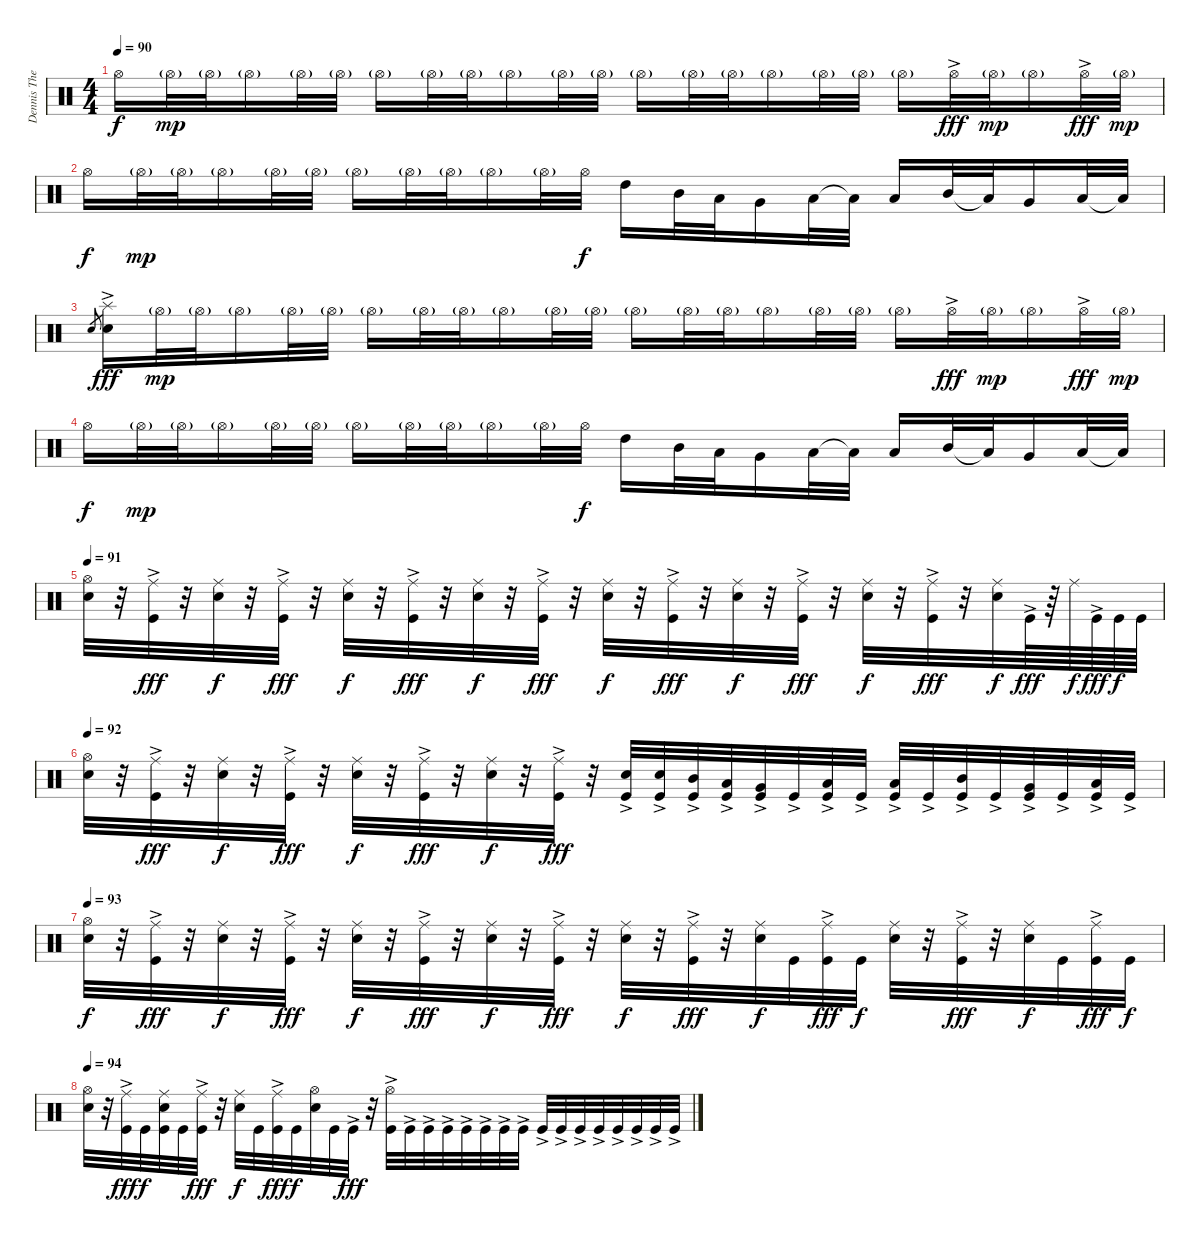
\track ("Dennis The Menace" "Dennis The") {instrument percussion}
\staff {score}
\articulation defaults
\ts (4 4)
\tempo 90
\clef neutral
\ks c "Hi-Hat (open)".16{dy f} "Hi-Hat (open)"{g}.32{dy mp} "Hi-Hat (open)"{g}.32 "Hi-Hat (open)"{g}.16 "Hi-Hat (open)"{g}.32 "Hi-Hat (open)"{g}.32 "Hi-Hat (open)"{g}.16 "Hi-Hat (open)"{g}.32 "Hi-Hat (open)"{g}.32 "Hi-Hat (open)"{g}.16 "Hi-Hat (open)"{g}.32 "Hi-Hat (open)"{g}.32 "Hi-Hat (open)"{g}.16 "Hi-Hat (open)"{g}.32 "Hi-Hat (open)"{g}.32 "Hi-Hat (open)"{g}.16 "Hi-Hat (open)"{g}.32 "Hi-Hat (open)"{g}.32 "Hi-Hat (open)"{g}.16 "Hi-Hat (open)"{ac}.32{dy fff} "Hi-Hat (open)"{g}.32{dy mp} "Hi-Hat (open)"{g}.16 "Hi-Hat (open)"{ac}.32{dy fff} "Hi-Hat (open)"{g}.32{dy mp}
|
"Hi-Hat (open)".16{dy f} "Hi-Hat (open)"{g}.32{dy mp} "Hi-Hat (open)"{g}.32 "Hi-Hat (open)"{g}.16 "Hi-Hat (open)"{g}.32 "Hi-Hat (open)"{g}.32 "Hi-Hat (open)"{g}.16 "Hi-Hat (open)"{g}.32 "Hi-Hat (open)"{g}.32 "Hi-Hat (open)"{g}.16 "Hi-Hat (open)"{g}.32 "Hi-Hat (open)".32{dy f} "High Tom (hit)".16 "Mid Tom (hit)".32 "Low Tom (hit)".32 "Very Low Tom (hit)".16 "Low Floor Tom (hit)".32 "Low Floor Tom (hit)"{t}.32 "Low Tom (hit)".16 "Mid Tom (hit)".32 "Low Tom (hit)"{t}.32 "Very Low Tom (hit)".16 "Low Floor Tom (hit)".32 "Low Floor Tom (hit)"{t}.32 |
"Electric Snare (hit)".8{gr} ("Splash (hit)"{ac} "Electric Snare (hit)").16{dy fff} "Hi-Hat (open)"{g}.32{dy mp} "Hi-Hat (open)"{g}.32 "Hi-Hat (open)"{g}.16 "Hi-Hat (open)"{g}.32 "Hi-Hat (open)"{g}.32 "Hi-Hat (open)"{g}.16 "Hi-Hat (open)"{g}.32 "Hi-Hat (open)"{g}.32 "Hi-Hat (open)"{g}.16 "Hi-Hat (open)"{g}.32 "Hi-Hat (open)"{g}.32 "Hi-Hat (open)"{g}.16 "Hi-Hat (open)"{g}.32 "Hi-Hat (open)"{g}.32 "Hi-Hat (open)"{g}.16 "Hi-Hat (open)"{g}.32 "Hi-Hat (open)"{g}.32 "Hi-Hat (open)"{g}.16 "Hi-Hat (open)"{ac}.32{dy fff} "Hi-Hat (open)"{g}.32{dy mp} "Hi-Hat (open)"{g}.16 "Hi-Hat (open)"{ac}.32{dy fff} "Hi-Hat (open)"{g}.32{dy mp} |
"Hi-Hat (open)".16{dy f} "Hi-Hat (open)"{g}.32{dy mp} "Hi-Hat (open)"{g}.32 "Hi-Hat (open)"{g}.16 "Hi-Hat (open)"{g}.32 "Hi-Hat (open)"{g}.32 "Hi-Hat (open)"{g}.16 "Hi-Hat (open)"{g}.32 "Hi-Hat (open)"{g}.32 "Hi-Hat (open)"{g}.16 "Hi-Hat (open)"{g}.32 "Hi-Hat (open)".32{dy f} "High Tom (hit)".16 "Mid Tom (hit)".32 "Low Tom (hit)".32 "Very Low Tom (hit)".16 "Low Floor Tom (hit)".32 "Low Floor Tom (hit)"{t}.32 "Low Tom (hit)".16 "Mid Tom (hit)".32 "Low Tom (hit)"{t}.32 "Very Low Tom (hit)".16 "Low Floor Tom (hit)".32 "Low Floor Tom (hit)"{t}.32 |
\tempo 91
("Hi-Hat (open)" "Electric Snare (hit)").32 r.32 ("Ride (middle)" "Kick (hit)"{ac}).32{dy fff} r.32 ("Ride (middle)" "Electric Snare (hit)").32{dy f} r.32 ("Ride (middle)" "Kick (hit)"{ac}).32{dy fff} r.32 ("Ride (middle)" "Electric Snare (hit)").32{dy f} r.32 ("Ride (middle)" "Kick (hit)"{ac}).32{dy fff} r.32 ("Ride (middle)" "Electric Snare (hit)").32{dy f} r.32 ("Ride (middle)" "Kick (hit)"{ac}).32{dy fff} r.32 ("Ride (middle)" "Electric Snare (hit)").32{dy f} r.32 ("Ride (middle)" "Kick (hit)"{ac}).32{dy fff} r.32 ("Ride (middle)" "Electric Snare (hit)").32{dy f} r.32 ("Ride (middle)" "Kick (hit)"{ac}).32{dy fff} r.32 ("Ride (middle)" "Electric Snare (hit)").32{dy f} r.32 ("Ride (middle)" "Kick (hit)"{ac}).32{dy fff} r.32 ("Ride (middle)" "Electric Snare (hit)").32{dy f} "Kick (hit)"{ac}.64{dy fff} r.64 "Ride (middle)".64{dy f} "Kick (hit)"{ac}.64{dy fff} "Kick (hit)".64{dy f} "Kick (hit)".64 |
\tempo 92
("Hi-Hat (open)" "Electric Snare (hit)").32 r.32 ("Ride (middle)" "Kick (hit)"{ac}).32{dy fff} r.32 ("Ride (middle)" "Electric Snare (hit)").32{dy f} r.32 ("Ride (middle)" "Kick (hit)"{ac}).32{dy fff} r.32 ("Ride (middle)" "Electric Snare (hit)").32{dy f} r.32 ("Ride (middle)" "Kick (hit)"{ac}).32{dy fff} r.32 ("Ride (middle)" "Electric Snare (hit)").32{dy f} r.32 ("Ride (middle)" "Kick (hit)"{ac}).32{dy fff} r.32 ("Electric Snare (hit)"{ac} "Kick (hit)"{ac}).32 ("Electric Snare (hit)"{ac} "Kick (hit)"{ac}).32 ("Mid Tom (hit)" "Kick (hit)"{ac}).32 ("Low Tom (hit)" "Kick (hit)"{ac}).32 ("Very Low Tom (hit)" "Kick (hit)"{ac}).32 "Kick (hit)"{ac}.32 ("Low Floor Tom (hit)" "Kick (hit)"{ac}).32 "Kick (hit)"{ac}.32 ("Low Tom (hit)" "Kick (hit)"{ac}).32 "Kick (hit)"{ac}.32 ("Mid Tom (hit)" "Kick (hit)"{ac}).32 "Kick (hit)"{ac}.32 ("Very Low Tom (hit)" "Kick (hit)"{ac}).32 "Kick (hit)"{ac}.32 ("Low Floor Tom (hit)" "Kick (hit)"{ac}).32 "Kick (hit)"{ac}.32 |
\tempo 93
("Hi-Hat (open)" "Electric Snare (hit)").32{dy f} r.32 ("Ride (middle)" "Kick (hit)"{ac}).32{dy fff} r.32 ("Ride (middle)" "Electric Snare (hit)").32{dy f} r.32 ("Ride (middle)" "Kick (hit)"{ac}).32{dy fff} r.32 ("Ride (middle)" "Electric Snare (hit)").32{dy f} r.32 ("Ride (middle)" "Kick (hit)"{ac}).32{dy fff} r.32 ("Ride (middle)" "Electric Snare (hit)").32{dy f} r.32 ("Ride (middle)" "Kick (hit)"{ac}).32{dy fff} r.32 ("Ride (middle)" "Electric Snare (hit)").32{dy f} r.32 ("Ride (middle)" "Kick (hit)"{ac}).32{dy fff} r.32 ("Ride (middle)" "Electric Snare (hit)").32{dy f} "Kick (hit)".32 ("Ride (middle)" "Kick (hit)"{ac}).32{dy fff} "Kick (hit)".32{dy f} ("Ride (middle)" "Electric Snare (hit)").32 r.32 ("Ride (middle)" "Kick (hit)"{ac}).32{dy fff} r.32 ("Ride (middle)" "Electric Snare (hit)").32{dy f} "Kick (hit)".32 ("Ride (middle)" "Kick (hit)"{ac}).32{dy fff} "Kick (hit)".32{dy f} |
\tempo 94
("Hi-Hat (open)" "Electric Snare (hit)").32 r.32 ("Ride (middle)" "Kick (hit)"{ac}).32{dy fff} "Kick (hit)".32{dy f} ("Ride (middle)" "Electric Snare (hit)" "Kick (hit)").32 "Kick (hit)".32 ("Ride (middle)" "Kick (hit)"{ac}).32{dy fff} r.32 ("Ride (middle)" "Electric Snare (hit)").32{dy f} "Kick (hit)".32 ("Ride (middle)" "Kick (hit)"{ac}).32{dy fff} "Kick (hit)".32{dy f} ("Hi-Hat (open)" "Electric Snare (hit)").32 "Kick (hit)".32 "Kick (hit)"{ac}.32{dy fff} r.32 ("Hi-Hat (open)" "Kick (hit)"{ac}).32 "Kick (hit)"{ac}.32 "Kick (hit)"{ac}.32 "Kick (hit)"{ac}.32 "Kick (hit)"{ac}.32 "Kick (hit)"{ac}.32 "Kick (hit)"{ac}.32 "Kick (hit)"{ac}.32 "Kick (hit)"{ac}.32 "Kick (hit)"{ac}.32 "Kick (hit)"{ac}.32 "Kick (hit)"{ac}.32 "Kick (hit)"{ac}.32 "Kick (hit)"{ac}.32 "Kick (hit)"{ac}.32 "Kick (hit)"{ac}.32
